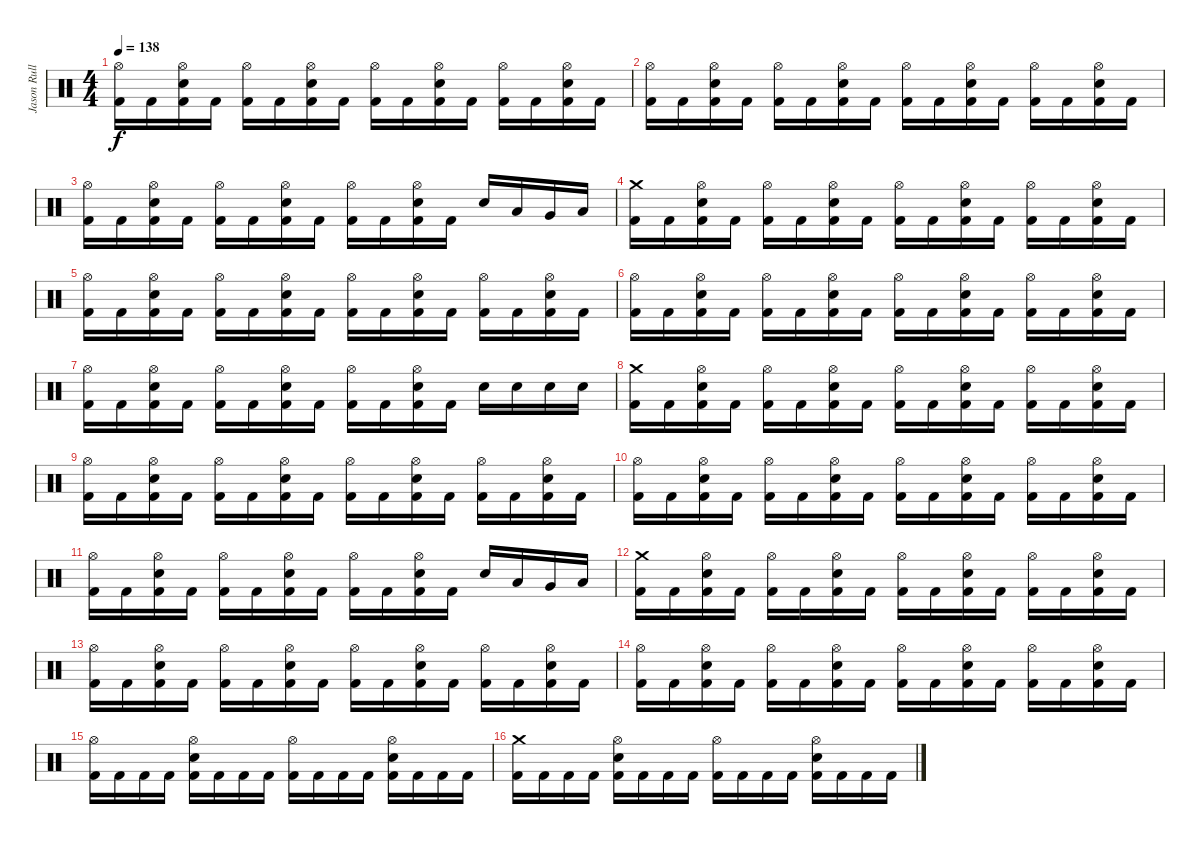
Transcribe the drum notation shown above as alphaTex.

\track ("Jason Rullo" "Jason Rull") {instrument percussion}
\staff {score}
\articulation defaults
\ts (4 4)
\tempo 138
\clef neutral
\ks c
("Hi-Hat (open)" "Kick (hit) 2").16{dy f} "Kick (hit) 2".16 ("Hi-Hat (open)" "Electric Snare (hit)" "Kick (hit) 2").16 "Kick (hit) 2".16 ("Hi-Hat (open)" "Kick (hit) 2").16 "Kick (hit) 2".16 ("Hi-Hat (open)" "Electric Snare (hit)" "Kick (hit) 2").16 "Kick (hit) 2".16 ("Hi-Hat (open)" "Kick (hit) 2").16 "Kick (hit) 2".16 ("Hi-Hat (open)" "Electric Snare (hit)" "Kick (hit) 2").16 "Kick (hit) 2".16 ("Hi-Hat (open)" "Kick (hit) 2").16 "Kick (hit) 2".16 ("Hi-Hat (open)" "Electric Snare (hit)" "Kick (hit) 2").16 "Kick (hit) 2".16 |
("Hi-Hat (open)" "Kick (hit) 2").16 "Kick (hit) 2".16 ("Hi-Hat (open)" "Electric Snare (hit)" "Kick (hit) 2").16 "Kick (hit) 2".16 ("Hi-Hat (open)" "Kick (hit) 2").16 "Kick (hit) 2".16 ("Hi-Hat (open)" "Electric Snare (hit)" "Kick (hit) 2").16 "Kick (hit) 2".16 ("Hi-Hat (open)" "Kick (hit) 2").16 "Kick (hit) 2".16 ("Hi-Hat (open)" "Electric Snare (hit)" "Kick (hit) 2").16 "Kick (hit) 2".16 ("Hi-Hat (open)" "Kick (hit) 2").16 "Kick (hit) 2".16 ("Hi-Hat (open)" "Electric Snare (hit)" "Kick (hit) 2").16 "Kick (hit) 2".16 |
("Hi-Hat (open)" "Kick (hit) 2").16 "Kick (hit) 2".16 ("Hi-Hat (open)" "Electric Snare (hit)" "Kick (hit) 2").16 "Kick (hit) 2".16 ("Hi-Hat (open)" "Kick (hit) 2").16 "Kick (hit) 2".16 ("Hi-Hat (open)" "Electric Snare (hit)" "Kick (hit) 2").16 "Kick (hit) 2".16 ("Hi-Hat (open)" "Kick (hit) 2").16 "Kick (hit) 2".16 ("Hi-Hat (open)" "Electric Snare (hit)" "Kick (hit) 2").16 "Kick (hit) 2".16 "Electric Snare (hit)".16 "Low Tom (hit)".16 "Very Low Tom (hit)".16 "Low Floor Tom (hit)".16 |
("Crash medium (hit)" "Kick (hit) 2").16 "Kick (hit) 2".16 ("Hi-Hat (open)" "Electric Snare (hit)" "Kick (hit) 2").16 "Kick (hit) 2".16 ("Hi-Hat (open)" "Kick (hit) 2").16 "Kick (hit) 2".16 ("Hi-Hat (open)" "Electric Snare (hit)" "Kick (hit) 2").16 "Kick (hit) 2".16 ("Hi-Hat (open)" "Kick (hit) 2").16 "Kick (hit) 2".16 ("Hi-Hat (open)" "Electric Snare (hit)" "Kick (hit) 2").16 "Kick (hit) 2".16 ("Hi-Hat (open)" "Kick (hit) 2").16 "Kick (hit) 2".16 ("Hi-Hat (open)" "Electric Snare (hit)" "Kick (hit) 2").16 "Kick (hit) 2".16 |
("Hi-Hat (open)" "Kick (hit) 2").16 "Kick (hit) 2".16 ("Hi-Hat (open)" "Electric Snare (hit)" "Kick (hit) 2").16 "Kick (hit) 2".16 ("Hi-Hat (open)" "Kick (hit) 2").16 "Kick (hit) 2".16 ("Hi-Hat (open)" "Electric Snare (hit)" "Kick (hit) 2").16 "Kick (hit) 2".16 ("Hi-Hat (open)" "Kick (hit) 2").16 "Kick (hit) 2".16 ("Hi-Hat (open)" "Electric Snare (hit)" "Kick (hit) 2").16 "Kick (hit) 2".16 ("Hi-Hat (open)" "Kick (hit) 2").16 "Kick (hit) 2".16 ("Hi-Hat (open)" "Electric Snare (hit)" "Kick (hit) 2").16 "Kick (hit) 2".16 |
("Hi-Hat (open)" "Kick (hit) 2").16 "Kick (hit) 2".16 ("Hi-Hat (open)" "Electric Snare (hit)" "Kick (hit) 2").16 "Kick (hit) 2".16 ("Hi-Hat (open)" "Kick (hit) 2").16 "Kick (hit) 2".16 ("Hi-Hat (open)" "Electric Snare (hit)" "Kick (hit) 2").16 "Kick (hit) 2".16 ("Hi-Hat (open)" "Kick (hit) 2").16 "Kick (hit) 2".16 ("Hi-Hat (open)" "Electric Snare (hit)" "Kick (hit) 2").16 "Kick (hit) 2".16 ("Hi-Hat (open)" "Kick (hit) 2").16 "Kick (hit) 2".16 ("Hi-Hat (open)" "Electric Snare (hit)" "Kick (hit) 2").16 "Kick (hit) 2".16 |
("Hi-Hat (open)" "Kick (hit) 2").16 "Kick (hit) 2".16 ("Hi-Hat (open)" "Electric Snare (hit)" "Kick (hit) 2").16 "Kick (hit) 2".16 ("Hi-Hat (open)" "Kick (hit) 2").16 "Kick (hit) 2".16 ("Hi-Hat (open)" "Electric Snare (hit)" "Kick (hit) 2").16 "Kick (hit) 2".16 ("Hi-Hat (open)" "Kick (hit) 2").16 "Kick (hit) 2".16 ("Hi-Hat (open)" "Electric Snare (hit)" "Kick (hit) 2").16 "Kick (hit) 2".16 "Electric Snare (hit)".16 "Electric Snare (hit)".16 "Electric Snare (hit)".16 "Electric Snare (hit)".16 |
("Crash medium (hit)" "Kick (hit) 2").16 "Kick (hit) 2".16 ("Hi-Hat (open)" "Electric Snare (hit)" "Kick (hit) 2").16 "Kick (hit) 2".16 ("Hi-Hat (open)" "Kick (hit) 2").16 "Kick (hit) 2".16 ("Hi-Hat (open)" "Electric Snare (hit)" "Kick (hit) 2").16 "Kick (hit) 2".16 ("Hi-Hat (open)" "Kick (hit) 2").16 "Kick (hit) 2".16 ("Hi-Hat (open)" "Electric Snare (hit)" "Kick (hit) 2").16 "Kick (hit) 2".16 ("Hi-Hat (open)" "Kick (hit) 2").16 "Kick (hit) 2".16 ("Hi-Hat (open)" "Electric Snare (hit)" "Kick (hit) 2").16 "Kick (hit) 2".16 |
("Hi-Hat (open)" "Kick (hit) 2").16 "Kick (hit) 2".16 ("Hi-Hat (open)" "Electric Snare (hit)" "Kick (hit) 2").16 "Kick (hit) 2".16 ("Hi-Hat (open)" "Kick (hit) 2").16 "Kick (hit) 2".16 ("Hi-Hat (open)" "Electric Snare (hit)" "Kick (hit) 2").16 "Kick (hit) 2".16 ("Hi-Hat (open)" "Kick (hit) 2").16 "Kick (hit) 2".16 ("Hi-Hat (open)" "Electric Snare (hit)" "Kick (hit) 2").16 "Kick (hit) 2".16 ("Hi-Hat (open)" "Kick (hit) 2").16 "Kick (hit) 2".16 ("Hi-Hat (open)" "Electric Snare (hit)" "Kick (hit) 2").16 "Kick (hit) 2".16 |
("Hi-Hat (open)" "Kick (hit) 2").16 "Kick (hit) 2".16 ("Hi-Hat (open)" "Electric Snare (hit)" "Kick (hit) 2").16 "Kick (hit) 2".16 ("Hi-Hat (open)" "Kick (hit) 2").16 "Kick (hit) 2".16 ("Hi-Hat (open)" "Electric Snare (hit)" "Kick (hit) 2").16 "Kick (hit) 2".16 ("Hi-Hat (open)" "Kick (hit) 2").16 "Kick (hit) 2".16 ("Hi-Hat (open)" "Electric Snare (hit)" "Kick (hit) 2").16 "Kick (hit) 2".16 ("Hi-Hat (open)" "Kick (hit) 2").16 "Kick (hit) 2".16 ("Hi-Hat (open)" "Electric Snare (hit)" "Kick (hit) 2").16 "Kick (hit) 2".16 |
("Hi-Hat (open)" "Kick (hit) 2").16 "Kick (hit) 2".16 ("Hi-Hat (open)" "Electric Snare (hit)" "Kick (hit) 2").16 "Kick (hit) 2".16 ("Hi-Hat (open)" "Kick (hit) 2").16 "Kick (hit) 2".16 ("Hi-Hat (open)" "Electric Snare (hit)" "Kick (hit) 2").16 "Kick (hit) 2".16 ("Hi-Hat (open)" "Kick (hit) 2").16 "Kick (hit) 2".16 ("Hi-Hat (open)" "Electric Snare (hit)" "Kick (hit) 2").16 "Kick (hit) 2".16 "Electric Snare (hit)".16 "Low Tom (hit)".16 "Very Low Tom (hit)".16 "Low Floor Tom (hit)".16 |
("Crash medium (hit)" "Kick (hit) 2").16 "Kick (hit) 2".16 ("Hi-Hat (open)" "Electric Snare (hit)" "Kick (hit) 2").16 "Kick (hit) 2".16 ("Hi-Hat (open)" "Kick (hit) 2").16 "Kick (hit) 2".16 ("Hi-Hat (open)" "Electric Snare (hit)" "Kick (hit) 2").16 "Kick (hit) 2".16 ("Hi-Hat (open)" "Kick (hit) 2").16 "Kick (hit) 2".16 ("Hi-Hat (open)" "Electric Snare (hit)" "Kick (hit) 2").16 "Kick (hit) 2".16 ("Hi-Hat (open)" "Kick (hit) 2").16 "Kick (hit) 2".16 ("Hi-Hat (open)" "Electric Snare (hit)" "Kick (hit) 2").16 "Kick (hit) 2".16 |
("Hi-Hat (open)" "Kick (hit) 2").16 "Kick (hit) 2".16 ("Hi-Hat (open)" "Electric Snare (hit)" "Kick (hit) 2").16 "Kick (hit) 2".16 ("Hi-Hat (open)" "Kick (hit) 2").16 "Kick (hit) 2".16 ("Hi-Hat (open)" "Electric Snare (hit)" "Kick (hit) 2").16 "Kick (hit) 2".16 ("Hi-Hat (open)" "Kick (hit) 2").16 "Kick (hit) 2".16 ("Hi-Hat (open)" "Electric Snare (hit)" "Kick (hit) 2").16 "Kick (hit) 2".16 ("Hi-Hat (open)" "Kick (hit) 2").16 "Kick (hit) 2".16 ("Hi-Hat (open)" "Electric Snare (hit)" "Kick (hit) 2").16 "Kick (hit) 2".16 |
("Hi-Hat (open)" "Kick (hit) 2").16 "Kick (hit) 2".16 ("Hi-Hat (open)" "Electric Snare (hit)" "Kick (hit) 2").16 "Kick (hit) 2".16 ("Hi-Hat (open)" "Kick (hit) 2").16 "Kick (hit) 2".16 ("Hi-Hat (open)" "Electric Snare (hit)" "Kick (hit) 2").16 "Kick (hit) 2".16 ("Hi-Hat (open)" "Kick (hit) 2").16 "Kick (hit) 2".16 ("Hi-Hat (open)" "Electric Snare (hit)" "Kick (hit) 2").16 "Kick (hit) 2".16 ("Hi-Hat (open)" "Kick (hit) 2").16 "Kick (hit) 2".16 ("Hi-Hat (open)" "Electric Snare (hit)" "Kick (hit) 2").16 "Kick (hit) 2".16 |
("Hi-Hat (open)" "Kick (hit) 2").16 "Kick (hit) 2".16 "Kick (hit) 2".16 "Kick (hit) 2".16 ("Electric Snare (hit)" "Hi-Hat (open)" "Kick (hit) 2").16 "Kick (hit) 2".16 "Kick (hit) 2".16 "Kick (hit) 2".16 ("Hi-Hat (open)" "Kick (hit) 2").16 "Kick (hit) 2".16 "Kick (hit) 2".16 "Kick (hit) 2".16 ("Hi-Hat (open)" "Kick (hit) 2" "Electric Snare (hit)").16 "Kick (hit) 2".16 "Kick (hit) 2".16 "Kick (hit) 2".16 |
("Kick (hit) 2" "Crash medium (hit)").16 "Kick (hit) 2".16 "Kick (hit) 2".16 "Kick (hit) 2".16 ("Hi-Hat (open)" "Electric Snare (hit)" "Kick (hit) 2").16 "Kick (hit) 2".16 "Kick (hit) 2".16 "Kick (hit) 2".16 ("Hi-Hat (open)" "Kick (hit) 2").16 "Kick (hit) 2".16 "Kick (hit) 2".16 "Kick (hit) 2".16 ("Hi-Hat (open)" "Electric Snare (hit)" "Kick (hit) 2").16 "Kick (hit) 2".16 "Kick (hit) 2".16 "Kick (hit) 2".16
